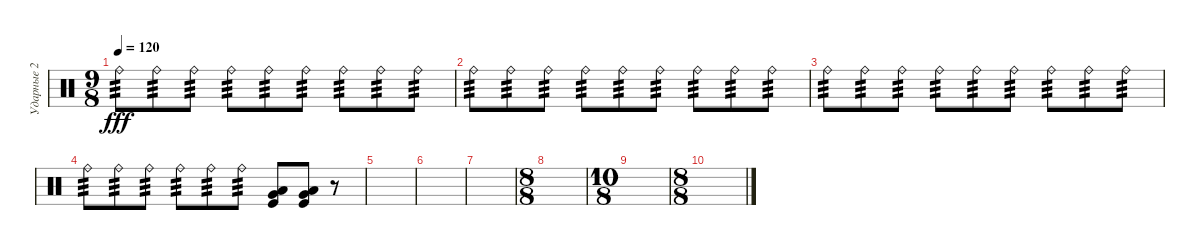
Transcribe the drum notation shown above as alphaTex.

\track ("Ударные 2" "Ударные 2") {instrument percussion}
\staff {score}
\articulation defaults
\ts (9 8)
\tempo 120
\clef neutral
\ks c "Ride (bell)".8{tp 3 dy fff} "Ride (bell)".8{tp 3} "Ride (bell)".8{tp 3} "Ride (bell)".8{tp 3} "Ride (bell)".8{tp 3} "Ride (bell)".8{tp 3} "Ride (bell)".8{tp 3} "Ride (bell)".8{tp 3} "Ride (bell)".8{tp 3}
|
"Ride (bell)".8{tp 3} "Ride (bell)".8{tp 3} "Ride (bell)".8{tp 3} "Ride (bell)".8{tp 3} "Ride (bell)".8{tp 3} "Ride (bell)".8{tp 3} "Ride (bell)".8{tp 3} "Ride (bell)".8{tp 3} "Ride (bell)".8{tp 3} |
"Ride (bell)".8{tp 3} "Ride (bell)".8{tp 3} "Ride (bell)".8{tp 3} "Ride (bell)".8{tp 3} "Ride (bell)".8{tp 3} "Ride (bell)".8{tp 3} "Ride (bell)".8{tp 3} "Ride (bell)".8{tp 3} "Ride (bell)".8{tp 3} |
"Ride (bell)".8{tp 3} "Ride (bell)".8{tp 3} "Ride (bell)".8{tp 3} "Ride (bell)".8{tp 3} "Ride (bell)".8{tp 3} "Ride (bell)".8{tp 3} ("Very Low Tom (hit)" "Low Floor Tom (hit)" "Kick (hit)").8 ("Very Low Tom (hit)" "Low Floor Tom (hit)" "Kick (hit)").8 r.8 |
|
|
|
\ts (8 8)
|
\ts (10 8)
|
\ts (8 8)
